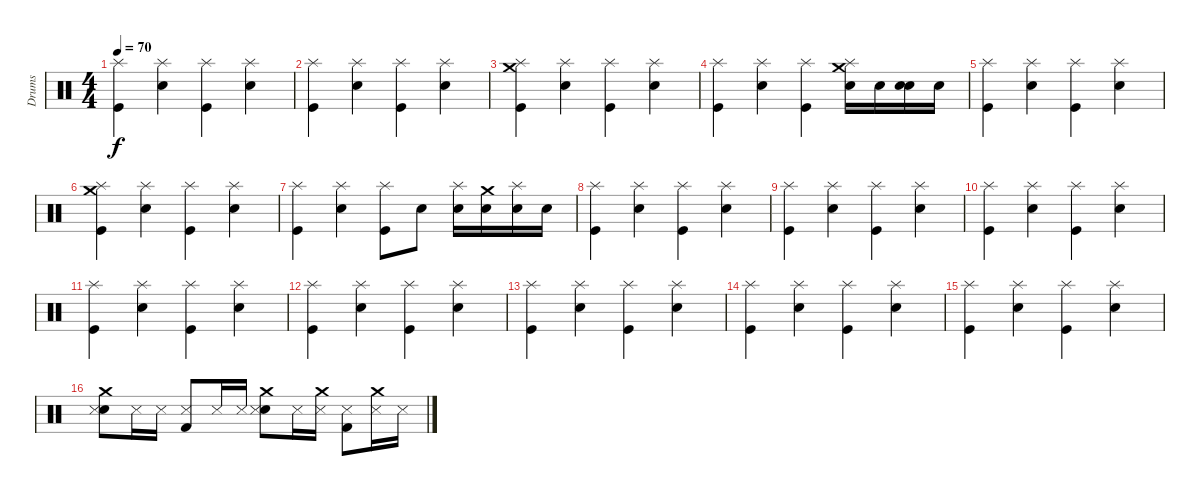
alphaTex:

\track ("Drums" "Drums") {instrument percussion}
\staff {score}
\articulation defaults
\ts (4 4)
\tempo 70
\clef neutral
\ks c
("Splash (hit)" "Kick (hit)").4{dy f} ("Splash (hit)" "Electric Snare (hit)").4 ("Splash (hit)" "Kick (hit)").4 ("Splash (hit)" "Electric Snare (hit)").4 |
("Splash (hit)" "Kick (hit)").4 ("Splash (hit)" "Electric Snare (hit)").4 ("Splash (hit)" "Kick (hit)").4 ("Splash (hit)" "Electric Snare (hit)").4 |
("Splash (hit)" "Crash medium (hit)" "Kick (hit)").4 ("Splash (hit)" "Electric Snare (hit)").4 ("Splash (hit)" "Kick (hit)").4 ("Splash (hit)" "Electric Snare (hit)").4 |
("Splash (hit)" "Kick (hit)").4 ("Splash (hit)" "Electric Snare (hit)").4 ("Splash (hit)" "Kick (hit)").4 ("Splash (hit)" "Crash medium (hit)" "Electric Snare (hit)").16 "Electric Snare (hit)".16 ("Snare (hit) 2" "Electric Snare (hit)").16 "Electric Snare (hit)".16 |
("Splash (hit)" "Kick (hit)").4 ("Splash (hit)" "Electric Snare (hit)").4 ("Splash (hit)" "Kick (hit)").4 ("Splash (hit)" "Electric Snare (hit)").4 |
("Splash (hit)" "Crash medium (hit)" "Kick (hit)").4 ("Splash (hit)" "Electric Snare (hit)").4 ("Splash (hit)" "Kick (hit)").4 ("Splash (hit)" "Electric Snare (hit)").4 |
("Splash (hit)" "Kick (hit)").4 ("Splash (hit)" "Electric Snare (hit)").4 ("Splash (hit)" "Kick (hit)").8 "Electric Snare (hit)".8 ("Splash (hit)" "Electric Snare (hit)").16 ("Electric Snare (hit)" "Crash medium (hit)").16 ("Splash (hit)" "Electric Snare (hit)").16 "Electric Snare (hit)".16 |
("Splash (hit)" "Kick (hit)").4 ("Splash (hit)" "Electric Snare (hit)").4 ("Splash (hit)" "Kick (hit)").4 ("Splash (hit)" "Electric Snare (hit)").4 |
("Splash (hit)" "Kick (hit)").4 ("Splash (hit)" "Electric Snare (hit)").4 ("Splash (hit)" "Kick (hit)").4 ("Splash (hit)" "Electric Snare (hit)").4 |
("Splash (hit)" "Kick (hit)").4 ("Splash (hit)" "Electric Snare (hit)").4 ("Splash (hit)" "Kick (hit)").4 ("Splash (hit)" "Electric Snare (hit)").4 |
("Splash (hit)" "Kick (hit)").4 ("Splash (hit)" "Electric Snare (hit)").4 ("Splash (hit)" "Kick (hit)").4 ("Splash (hit)" "Electric Snare (hit)").4 |
("Splash (hit)" "Kick (hit)").4 ("Splash (hit)" "Electric Snare (hit)").4 ("Splash (hit)" "Kick (hit)").4 ("Splash (hit)" "Electric Snare (hit)").4 |
("Splash (hit)" "Kick (hit)").4 ("Splash (hit)" "Electric Snare (hit)").4 ("Splash (hit)" "Kick (hit)").4 ("Splash (hit)" "Electric Snare (hit)").4 |
("Splash (hit)" "Kick (hit)").4 ("Splash (hit)" "Electric Snare (hit)").4 ("Splash (hit)" "Kick (hit)").4 ("Splash (hit)" "Electric Snare (hit)").4 |
("Splash (hit)" "Kick (hit)").4 ("Splash (hit)" "Electric Snare (hit)").4 ("Splash (hit)" "Kick (hit)").4 ("Splash (hit)" "Electric Snare (hit)").4 |
("Snare (hit) 2" "Crash medium (hit)" "Snare (side stick) 3").8 "Snare (side stick) 3".16 "Snare (side stick) 3".16 ("Kick (hit) 2" "Snare (side stick) 3").8 "Snare (side stick) 3".16 "Snare (side stick) 3".16 ("Snare (hit) 2" "Crash medium (hit)" "Snare (side stick) 3").8 "Snare (side stick) 3".16 ("Crash medium (hit)" "Snare (side stick) 3").16 ("Kick (hit) 2" "Snare (side stick) 3").8 ("Crash medium (hit)" "Snare (side stick) 3").16 "Snare (side stick) 3".16
